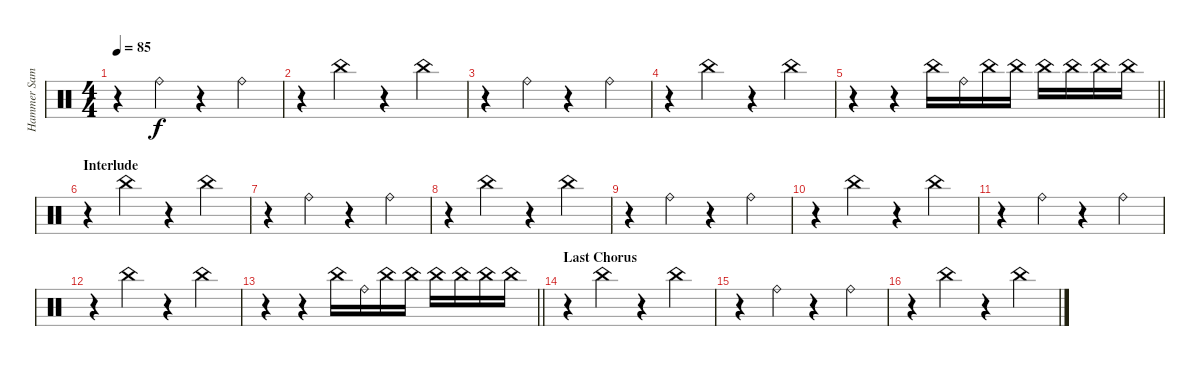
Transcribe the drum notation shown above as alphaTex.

\track ("Hammer Samples" "Hammer Sam") {instrument percussion}
\staff {score}
\articulation defaults
\ts (4 4)
\tempo 85
\clef neutral
\ks c
r.4{dy f} "Ride (bell)".4 r.4 "Ride (bell)".4 |
r.4 "China (hit)".4 r.4 "China (hit)".4 |
r.4 "Ride (bell)".4 r.4 "Ride (bell)".4 |
r.4 "China (hit)".4 r.4 "China (hit)".4 |
\barLineRight lightlight
r.4 r.4 "China (hit)".16 "Ride (bell)".16 "China (hit)".16 "China (hit)".16 "China (hit)".16 "China (hit)".16 "China (hit)".16 "China (hit)".16 |
\section ("" "Interlude")
r.4 "China (hit)".4 r.4 "China (hit)".4 |
r.4 "Ride (bell)".4 r.4 "Ride (bell)".4 |
r.4 "China (hit)".4 r.4 "China (hit)".4 |
r.4 "Ride (bell)".4 r.4 "Ride (bell)".4 |
r.4 "China (hit)".4 r.4 "China (hit)".4 |
r.4 "Ride (bell)".4 r.4 "Ride (bell)".4 |
r.4 "China (hit)".4 r.4 "China (hit)".4 |
\barLineRight lightlight
r.4 r.4 "China (hit)".16 "Ride (bell)".16 "China (hit)".16 "China (hit)".16 "China (hit)".16 "China (hit)".16 "China (hit)".16 "China (hit)".16 |
\section ("" "Last Chorus")
r.4 "China (hit)".4 r.4 "China (hit)".4 |
r.4 "Ride (bell)".4 r.4 "Ride (bell)".4 |
r.4 "China (hit)".4 r.4 "China (hit)".4
